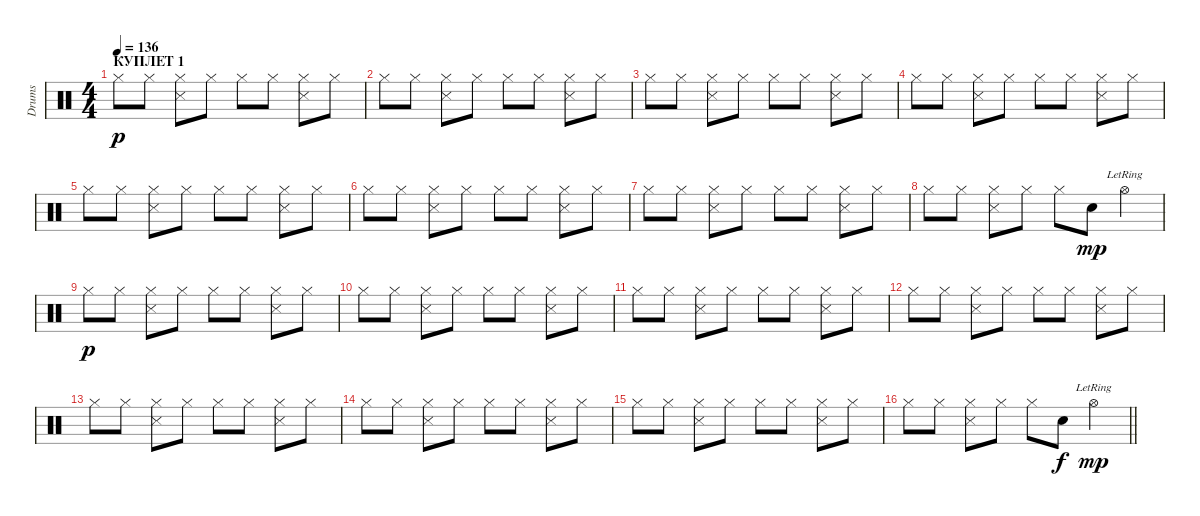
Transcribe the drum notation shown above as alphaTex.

\track ("Drums" "Drums") {instrument percussion}
\staff {score}
\articulation defaults
\ts (4 4)
\section ("" "КУПЛЕТ 1")
\tempo 136
\clef neutral
\ks c "Hi-Hat (closed)".8{dy p} "Hi-Hat (closed)".8
("Hi-Hat (closed)" "Snare (side stick) 3").8 "Hi-Hat (closed)".8 "Hi-Hat (closed)".8 "Hi-Hat (closed)".8 ("Hi-Hat (closed)" "Snare (side stick) 3").8 "Hi-Hat (closed)".8 |
"Hi-Hat (closed)".8 "Hi-Hat (closed)".8 ("Hi-Hat (closed)" "Snare (side stick) 3").8 "Hi-Hat (closed)".8 "Hi-Hat (closed)".8 "Hi-Hat (closed)".8 ("Hi-Hat (closed)" "Snare (side stick) 3").8 "Hi-Hat (closed)".8 |
"Hi-Hat (closed)".8 "Hi-Hat (closed)".8 ("Hi-Hat (closed)" "Snare (side stick) 3").8 "Hi-Hat (closed)".8 "Hi-Hat (closed)".8 "Hi-Hat (closed)".8 ("Hi-Hat (closed)" "Snare (side stick) 3").8 "Hi-Hat (closed)".8 |
"Hi-Hat (closed)".8 "Hi-Hat (closed)".8 ("Hi-Hat (closed)" "Snare (side stick) 3").8 "Hi-Hat (closed)".8 "Hi-Hat (closed)".8 "Hi-Hat (closed)".8 ("Hi-Hat (closed)" "Snare (side stick) 3").8 "Hi-Hat (closed)".8 |
"Hi-Hat (closed)".8 "Hi-Hat (closed)".8 ("Hi-Hat (closed)" "Snare (side stick) 3").8 "Hi-Hat (closed)".8 "Hi-Hat (closed)".8 "Hi-Hat (closed)".8 ("Hi-Hat (closed)" "Snare (side stick) 3").8 "Hi-Hat (closed)".8 |
"Hi-Hat (closed)".8 "Hi-Hat (closed)".8 ("Hi-Hat (closed)" "Snare (side stick) 3").8 "Hi-Hat (closed)".8 "Hi-Hat (closed)".8 "Hi-Hat (closed)".8 ("Hi-Hat (closed)" "Snare (side stick) 3").8 "Hi-Hat (closed)".8 |
"Hi-Hat (closed)".8 "Hi-Hat (closed)".8 ("Hi-Hat (closed)" "Snare (side stick) 3").8 "Hi-Hat (closed)".8 "Hi-Hat (closed)".8 "Hi-Hat (closed)".8 ("Hi-Hat (closed)" "Snare (side stick) 3").8 "Hi-Hat (closed)".8 |
"Hi-Hat (closed)".8 "Hi-Hat (closed)".8 ("Hi-Hat (closed)" "Snare (side stick) 3").8 "Hi-Hat (closed)".8 "Hi-Hat (closed)".8 "Electric Snare (hit)".8{dy mp} "Hi-Hat (open)"{lr}.4 |
"Hi-Hat (closed)".8{dy p} "Hi-Hat (closed)".8 ("Hi-Hat (closed)" "Snare (side stick) 3").8 "Hi-Hat (closed)".8 "Hi-Hat (closed)".8 "Hi-Hat (closed)".8 ("Hi-Hat (closed)" "Snare (side stick) 3").8 "Hi-Hat (closed)".8 |
"Hi-Hat (closed)".8 "Hi-Hat (closed)".8 ("Hi-Hat (closed)" "Snare (side stick) 3").8 "Hi-Hat (closed)".8 "Hi-Hat (closed)".8 "Hi-Hat (closed)".8 ("Hi-Hat (closed)" "Snare (side stick) 3").8 "Hi-Hat (closed)".8 |
"Hi-Hat (closed)".8 "Hi-Hat (closed)".8 ("Hi-Hat (closed)" "Snare (side stick) 3").8 "Hi-Hat (closed)".8 "Hi-Hat (closed)".8 "Hi-Hat (closed)".8 ("Hi-Hat (closed)" "Snare (side stick) 3").8 "Hi-Hat (closed)".8 |
"Hi-Hat (closed)".8 "Hi-Hat (closed)".8 ("Hi-Hat (closed)" "Snare (side stick) 3").8 "Hi-Hat (closed)".8 "Hi-Hat (closed)".8 "Hi-Hat (closed)".8 ("Hi-Hat (closed)" "Snare (side stick) 3").8 "Hi-Hat (closed)".8 |
"Hi-Hat (closed)".8 "Hi-Hat (closed)".8 ("Hi-Hat (closed)" "Snare (side stick) 3").8 "Hi-Hat (closed)".8 "Hi-Hat (closed)".8 "Hi-Hat (closed)".8 ("Hi-Hat (closed)" "Snare (side stick) 3").8 "Hi-Hat (closed)".8 |
"Hi-Hat (closed)".8 "Hi-Hat (closed)".8 ("Hi-Hat (closed)" "Snare (side stick) 3").8 "Hi-Hat (closed)".8 "Hi-Hat (closed)".8 "Hi-Hat (closed)".8 ("Hi-Hat (closed)" "Snare (side stick) 3").8 "Hi-Hat (closed)".8 |
"Hi-Hat (closed)".8 "Hi-Hat (closed)".8 ("Hi-Hat (closed)" "Snare (side stick) 3").8 "Hi-Hat (closed)".8 "Hi-Hat (closed)".8 "Hi-Hat (closed)".8 ("Hi-Hat (closed)" "Snare (side stick) 3").8 "Hi-Hat (closed)".8 |
\barLineRight lightlight "Hi-Hat (closed)".8 "Hi-Hat (closed)".8
("Hi-Hat (closed)" "Snare (side stick) 3").8 "Hi-Hat (closed)".8 "Hi-Hat (closed)".8 "Electric Snare (hit)".8{dy f} "Hi-Hat (open)"{lr}.4{dy mp}
